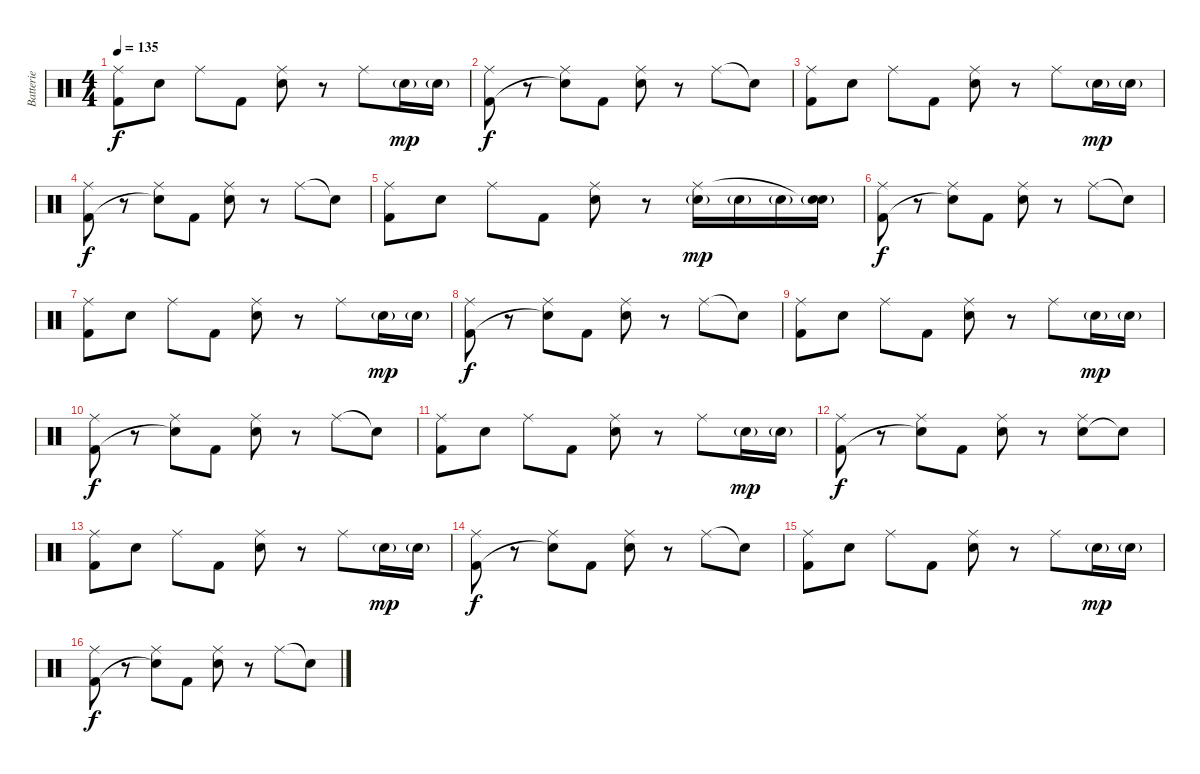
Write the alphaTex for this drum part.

\track ("Batterie" "Batterie") {instrument percussion}
\staff {score}
\articulation defaults
\ts (4 4)
\tempo 135
\clef neutral
\ks c
("Kick (hit) 2" "Ride (middle)").8{dy f} "Snare (hit) 2".8 "Ride (middle)".8 "Kick (hit) 2".8 ("Snare (hit) 2" "Ride (middle)").8 r.8 "Ride (middle)".8 "Snare (hit) 2"{g}.16{dy mp} "Snare (hit) 2"{g}.16 |
("Kick (hit) 2" "Ride (middle)").8{dy f volume 10} r.8 ("Snare (hit)"{t} "Ride (middle)").8 "Kick (hit) 2".8 ("Snare (hit) 2" "Ride (middle)").8 r.8 "Ride (middle)".8 "Snare (hit)"{t}.8 |
("Kick (hit) 2" "Ride (middle)").8 "Snare (hit) 2".8 "Ride (middle)".8 "Kick (hit) 2".8 ("Snare (hit) 2" "Ride (middle)").8 r.8 "Ride (middle)".8 "Snare (hit) 2"{g}.16{dy mp} "Snare (hit) 2"{g}.16 |
("Kick (hit) 2" "Ride (middle)").8{dy f volume 10} r.8 ("Snare (hit)"{t} "Ride (middle)").8 "Kick (hit) 2".8 ("Snare (hit) 2" "Ride (middle)").8 r.8 "Ride (middle)".8 "Snare (hit)"{t}.8 |
("Kick (hit) 2" "Ride (middle)").8 "Snare (hit) 2".8 "Ride (middle)".8 "Kick (hit) 2".8 ("Snare (hit) 2" "Ride (middle)").8 r.8 ("Snare (hit) 2"{g} "Ride (middle)").16{dy mp} "Snare (hit) 2"{g}.16 "Snare (hit) 2"{g}.16 ("Snare (hit) 2"{g} "Snare (hit)"{t}).16 |
("Kick (hit) 2" "Ride (middle)").8{dy f volume 10} r.8 ("Snare (hit)"{t} "Ride (middle)").8 "Kick (hit) 2".8 ("Snare (hit) 2" "Ride (middle)").8 r.8 "Ride (middle)".8 "Snare (hit)"{t}.8 |
("Kick (hit) 2" "Ride (middle)").8 "Snare (hit) 2".8 "Ride (middle)".8 "Kick (hit) 2".8 ("Snare (hit) 2" "Ride (middle)").8 r.8 "Ride (middle)".8 "Snare (hit) 2"{g}.16{dy mp} "Snare (hit) 2"{g}.16 |
("Kick (hit) 2" "Ride (middle)").8{dy f volume 10} r.8 ("Snare (hit)"{t} "Ride (middle)").8 "Kick (hit) 2".8 ("Snare (hit) 2" "Ride (middle)").8 r.8 "Ride (middle)".8 "Snare (hit)"{t}.8 |
("Kick (hit) 2" "Ride (middle)").8 "Snare (hit) 2".8 "Ride (middle)".8 "Kick (hit) 2".8 ("Snare (hit) 2" "Ride (middle)").8 r.8 "Ride (middle)".8 "Snare (hit) 2"{g}.16{dy mp} "Snare (hit) 2"{g}.16 |
("Kick (hit) 2" "Ride (middle)").8{dy f volume 10} r.8 ("Snare (hit)"{t} "Ride (middle)").8 "Kick (hit) 2".8 ("Snare (hit) 2" "Ride (middle)").8 r.8 "Ride (middle)".8 "Snare (hit)"{t}.8 |
("Kick (hit) 2" "Ride (middle)").8 "Snare (hit) 2".8 "Ride (middle)".8 "Kick (hit) 2".8 ("Snare (hit) 2" "Ride (middle)").8 r.8 "Ride (middle)".8 "Snare (hit) 2"{g}.16{dy mp} "Snare (hit) 2"{g}.16 |
("Kick (hit) 2" "Ride (middle)").8{dy f volume 10} r.8 ("Snare (hit)"{t} "Ride (middle)").8 "Kick (hit) 2".8 ("Snare (hit) 2" "Ride (middle)").8 r.8 ("Snare (hit) 2" "Ride (middle)").8 "Snare (hit)"{t}.8 |
("Kick (hit) 2" "Ride (middle)").8 "Snare (hit) 2".8 "Ride (middle)".8 "Kick (hit) 2".8 ("Snare (hit) 2" "Ride (middle)").8 r.8 "Ride (middle)".8 "Snare (hit) 2"{g}.16{dy mp} "Snare (hit) 2"{g}.16 |
("Kick (hit) 2" "Ride (middle)").8{dy f volume 10} r.8 ("Snare (hit)"{t} "Ride (middle)").8 "Kick (hit) 2".8 ("Snare (hit) 2" "Ride (middle)").8 r.8 "Ride (middle)".8 "Snare (hit)"{t}.8 |
("Kick (hit) 2" "Ride (middle)").8 "Snare (hit) 2".8 "Ride (middle)".8 "Kick (hit) 2".8 ("Snare (hit) 2" "Ride (middle)").8 r.8 "Ride (middle)".8 "Snare (hit) 2"{g}.16{dy mp} "Snare (hit) 2"{g}.16 |
("Kick (hit) 2" "Ride (middle)").8{dy f volume 10} r.8 ("Snare (hit)"{t} "Ride (middle)").8 "Kick (hit) 2".8 ("Snare (hit) 2" "Ride (middle)").8 r.8 "Ride (middle)".8 "Snare (hit)"{t}.8
